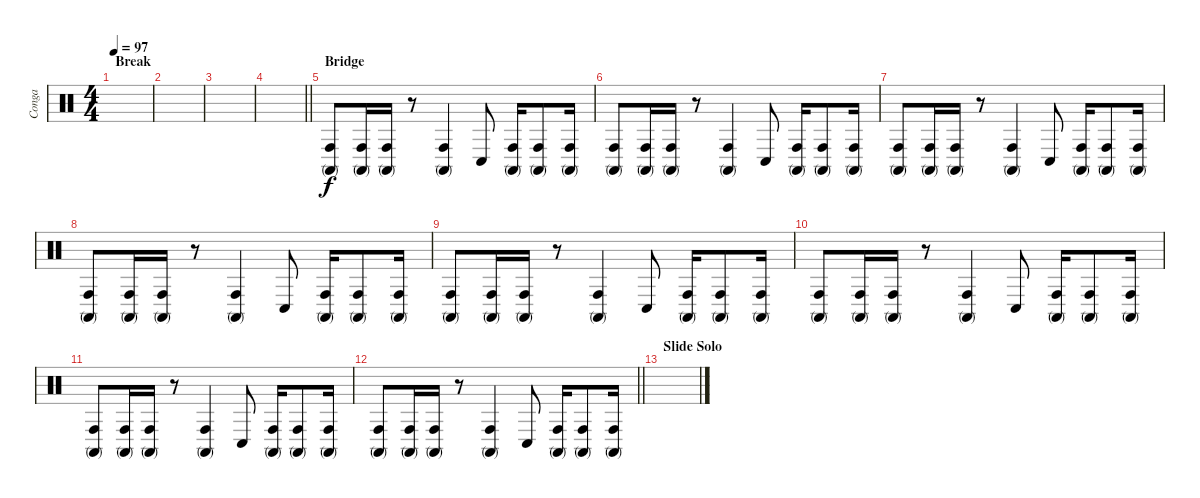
\track ("Conga" "Conga") {instrument percussion}
\staff {score}
\articulation defaults
\ts (4 4)
\section ("" "Break")
\tempo 97
\clef neutral
\ks c
|
|
|
\barLineRight lightlight
|
\section ("" "Bridge")
("Conga high (hit)" "Conga high (mute)").8 ("Conga high (hit)" "Conga high (mute)").16 ("Conga high (hit)" "Conga high (mute)").16 r.8 ("Conga high (hit)" "Conga high (mute)").4 "Conga low (hit)".8 ("Conga high (hit)" "Conga high (mute)").16 ("Conga high (hit)" "Conga high (mute)").8 ("Conga high (hit)" "Conga high (mute)").16 |
("Conga high (hit)" "Conga high (mute)").8 ("Conga high (hit)" "Conga high (mute)").16 ("Conga high (hit)" "Conga high (mute)").16 r.8 ("Conga high (hit)" "Conga high (mute)").4 "Conga low (hit)".8 ("Conga high (hit)" "Conga high (mute)").16 ("Conga high (hit)" "Conga high (mute)").8 ("Conga high (hit)" "Conga high (mute)").16 |
("Conga high (hit)" "Conga high (mute)").8 ("Conga high (hit)" "Conga high (mute)").16 ("Conga high (hit)" "Conga high (mute)").16 r.8 ("Conga high (hit)" "Conga high (mute)").4 "Conga low (hit)".8 ("Conga high (hit)" "Conga high (mute)").16 ("Conga high (hit)" "Conga high (mute)").8 ("Conga high (hit)" "Conga high (mute)").16 |
("Conga high (hit)" "Conga high (mute)").8 ("Conga high (hit)" "Conga high (mute)").16 ("Conga high (hit)" "Conga high (mute)").16 r.8 ("Conga high (hit)" "Conga high (mute)").4 "Conga low (hit)".8 ("Conga high (hit)" "Conga high (mute)").16 ("Conga high (hit)" "Conga high (mute)").8 ("Conga high (hit)" "Conga high (mute)").16 |
("Conga high (hit)" "Conga high (mute)").8 ("Conga high (hit)" "Conga high (mute)").16 ("Conga high (hit)" "Conga high (mute)").16 r.8 ("Conga high (hit)" "Conga high (mute)").4 "Conga low (hit)".8 ("Conga high (hit)" "Conga high (mute)").16 ("Conga high (hit)" "Conga high (mute)").8 ("Conga high (hit)" "Conga high (mute)").16 |
("Conga high (hit)" "Conga high (mute)").8 ("Conga high (hit)" "Conga high (mute)").16 ("Conga high (hit)" "Conga high (mute)").16 r.8 ("Conga high (hit)" "Conga high (mute)").4 "Conga low (hit)".8 ("Conga high (hit)" "Conga high (mute)").16 ("Conga high (hit)" "Conga high (mute)").8 ("Conga high (hit)" "Conga high (mute)").16 |
("Conga high (hit)" "Conga high (mute)").8 ("Conga high (hit)" "Conga high (mute)").16 ("Conga high (hit)" "Conga high (mute)").16 r.8 ("Conga high (hit)" "Conga high (mute)").4 "Conga low (hit)".8 ("Conga high (hit)" "Conga high (mute)").16 ("Conga high (hit)" "Conga high (mute)").8 ("Conga high (hit)" "Conga high (mute)").16 |
\barLineRight lightlight
("Conga high (hit)" "Conga high (mute)").8 ("Conga high (hit)" "Conga high (mute)").16 ("Conga high (hit)" "Conga high (mute)").16 r.8 ("Conga high (hit)" "Conga high (mute)").4 "Conga low (hit)".8 ("Conga high (hit)" "Conga high (mute)").16 ("Conga high (hit)" "Conga high (mute)").8 ("Conga high (hit)" "Conga high (mute)").16 |
\section ("" "Slide Solo")
